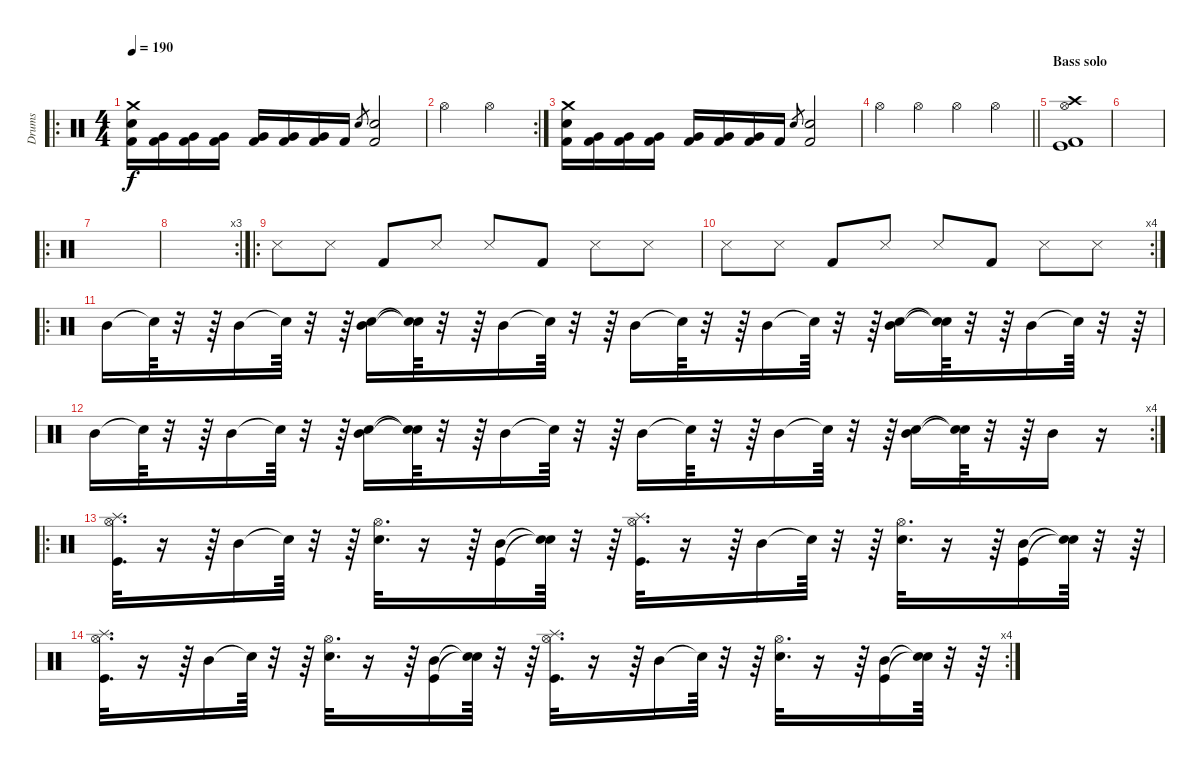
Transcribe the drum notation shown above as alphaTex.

\track ("Drums" "Drums") {instrument percussion}
\staff {score}
\articulation defaults
\ro
\ts (4 4)
\tempo 190
\clef neutral
\ks c
("Crash medium (hit)" "Electric Snare (hit)" "Kick (hit) 2").16{dy f} ("Very Low Tom (hit)" "Kick (hit) 2").16 ("Very Low Tom (hit)" "Kick (hit) 2").16 ("Very Low Tom (hit)" "Kick (hit) 2").16 ("Very Low Tom (hit)" "Kick (hit) 2").16 ("Very Low Tom (hit)" "Kick (hit) 2").16 ("Very Low Tom (hit)" "Kick (hit) 2").16 "Kick (hit) 2".16 "Electric Snare (hit)".8{gr} ("Electric Snare (hit)" "Kick (hit) 2").2 |
\rc 2 "Hi-Hat (open)".2 "Hi-Hat (open)".2
|
("Crash medium (hit)" "Electric Snare (hit)" "Kick (hit) 2").16 ("Very Low Tom (hit)" "Kick (hit) 2").16 ("Very Low Tom (hit)" "Kick (hit) 2").16 ("Very Low Tom (hit)" "Kick (hit) 2").16 ("Very Low Tom (hit)" "Kick (hit) 2").16 ("Very Low Tom (hit)" "Kick (hit) 2").16 ("Very Low Tom (hit)" "Kick (hit) 2").16 "Kick (hit) 2".16 "Electric Snare (hit)".8{gr} ("Electric Snare (hit)" "Kick (hit) 2").2 |
\barLineRight lightlight "Hi-Hat (open)".4 "Hi-Hat (open)".4 "Hi-Hat (open)".4 "Hi-Hat (open)".4
|
\section ("" "Bass solo")
("Crash high (hit)" "Hi-Hat (open)" "Kick (hit) 2" "Kick (hit)").1 |
|
\ro
|
\rc 3
|
\ro "Snare (side stick) 3".8 "Snare (side stick) 3".8 "Kick (hit) 2".8 "Snare (side stick) 3".8 "Snare (side stick) 3".8 "Kick (hit) 2".8 "Snare (side stick) 3".8 "Snare (side stick) 3".8
|
\rc 4 "Snare (side stick) 3".8 "Snare (side stick) 3".8 "Kick (hit) 2".8 "Snare (side stick) 3".8 "Snare (side stick) 3".8 "Kick (hit) 2".8 "Snare (side stick) 3".8 "Snare (side stick) 3".8
|
\ro "Mid Tom (hit)".16 "Snare (hit)"{t}.64
r.32 r.64 "Mid Tom (hit)".16 "Snare (hit)"{t}.64 r.32 r.64 ("Mid Tom (hit)" "Snare (hit) 2").16 ("Snare (hit)"{t} "Snare (hit)"{t}).64 r.32 r.64 "Mid Tom (hit)".16 "Snare (hit)"{t}.64 r.32 r.64 "Mid Tom (hit)".16 "Snare (hit)"{t}.64 r.32 r.64 "Mid Tom (hit)".16 "Snare (hit)"{t}.64 r.32 r.64 ("Mid Tom (hit)" "Snare (hit) 2").16 ("Snare (hit)"{t} "Snare (hit)"{t}).64 r.32 r.64 "Mid Tom (hit)".16 "Snare (hit)"{t}.64 r.32 r.64 |
\rc 4 "Mid Tom (hit)".16 "Snare (hit)"{t}.64
r.32 r.64 "Mid Tom (hit)".16 "Snare (hit)"{t}.64 r.32 r.64 ("Mid Tom (hit)" "Snare (hit) 2").16 ("Snare (hit)"{t} "Snare (hit)"{t}).64 r.32 r.64 "Mid Tom (hit)".16 "Snare (hit)"{t}.64 r.32 r.64 "Mid Tom (hit)".16 "Snare (hit)"{t}.64 r.32 r.64 "Mid Tom (hit)".16 "Snare (hit)"{t}.64 r.32 r.64 ("Mid Tom (hit)" "Snare (hit) 2").16 ("Snare (hit)"{t} "Snare (hit)"{t}).64 r.32 r.64 "Mid Tom (hit)".16 r.16 |
\ro
("Splash (hit)" "Kick (hit)" "Hi-Hat (open)").32{d} r.16 r.64 "Mid Tom (hit)".16 "Snare (hit)"{t}.64 r.32 r.64 ("Snare (hit) 2" "Hi-Hat (open)").32{d} r.16 r.64 ("Kick (hit)" "Mid Tom (hit)").16 ("Snare (hit)"{t} "Snare (hit)"{t}).64 r.32 r.64 ("Splash (hit)" "Kick (hit)" "Hi-Hat (open)").32{d} r.16 r.64 "Mid Tom (hit)".16 "Snare (hit)"{t}.64 r.32 r.64 ("Snare (hit) 2" "Hi-Hat (open)").32{d} r.16 r.64 ("Kick (hit)" "Mid Tom (hit)").16 ("Snare (hit)"{t} "Snare (hit)"{t}).64 r.32 r.64 |
\rc 4
("Splash (hit)" "Kick (hit)" "Hi-Hat (open)").32{d} r.16 r.64 "Mid Tom (hit)".16 "Snare (hit)"{t}.64 r.32 r.64 ("Snare (hit) 2" "Hi-Hat (open)").32{d} r.16 r.64 ("Kick (hit)" "Mid Tom (hit)").16 ("Snare (hit)"{t} "Snare (hit)"{t}).64 r.32 r.64 ("Splash (hit)" "Kick (hit)" "Hi-Hat (open)").32{d} r.16 r.64 "Mid Tom (hit)".16 "Snare (hit)"{t}.64 r.32 r.64 ("Snare (hit) 2" "Hi-Hat (open)").32{d} r.16 r.64 ("Kick (hit)" "Mid Tom (hit)").16 ("Snare (hit)"{t} "Snare (hit)"{t}).64 r.32 r.64
